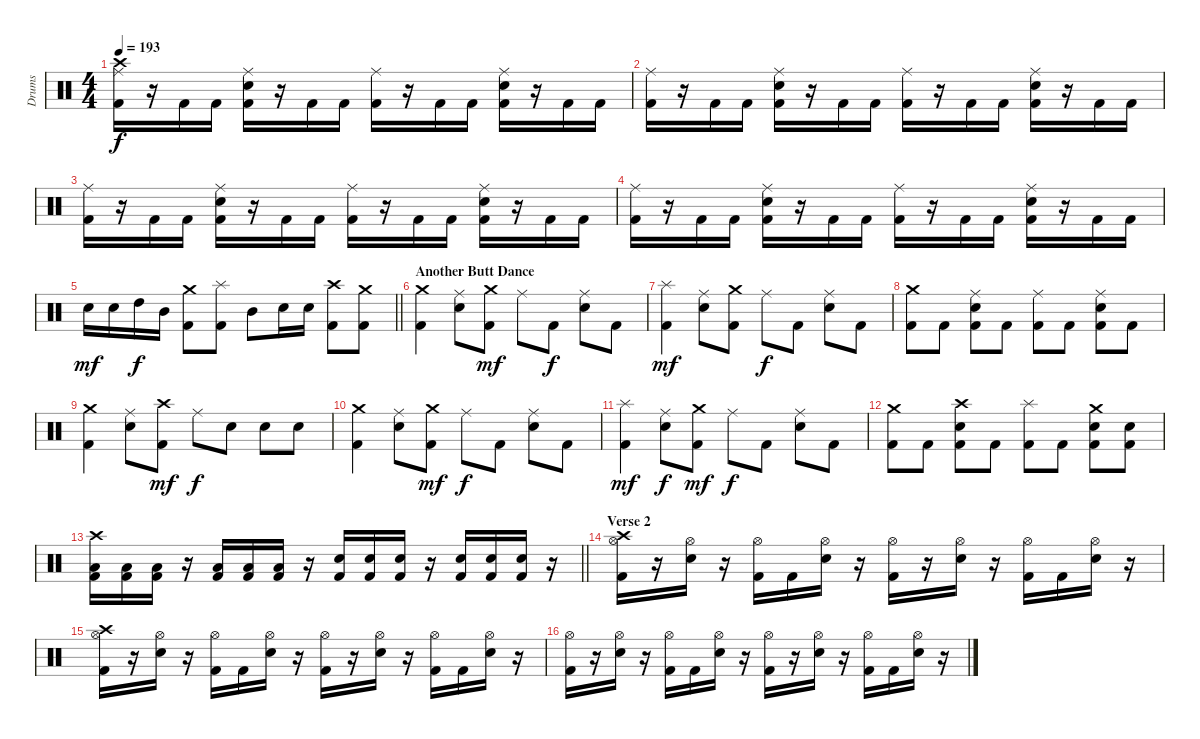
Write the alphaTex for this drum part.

\track ("Drums" "Drums") {instrument percussion}
\staff {score}
\articulation defaults
\ts (4 4)
\tempo 193
\clef neutral
\ks c
("Crash high (hit)" "Ride (middle)" "Kick (hit) 2").16{dy f} r.16 "Kick (hit) 2".16 "Kick (hit) 2".16 ("Ride (middle)" "Snare (hit) 2" "Kick (hit) 2").16 r.16 "Kick (hit) 2".16 "Kick (hit) 2".16 ("Ride (middle)" "Kick (hit) 2").16 r.16 "Kick (hit) 2".16 "Kick (hit) 2".16 ("Ride (middle)" "Snare (hit) 2" "Kick (hit) 2").16 r.16 "Kick (hit) 2".16 "Kick (hit) 2".16 |
("Ride (middle)" "Kick (hit) 2").16 r.16 "Kick (hit) 2".16 "Kick (hit) 2".16 ("Ride (middle)" "Snare (hit) 2" "Kick (hit) 2").16 r.16 "Kick (hit) 2".16 "Kick (hit) 2".16 ("Ride (middle)" "Kick (hit) 2").16 r.16 "Kick (hit) 2".16 "Kick (hit) 2".16 ("Ride (middle)" "Snare (hit) 2" "Kick (hit) 2").16 r.16 "Kick (hit) 2".16 "Kick (hit) 2".16 |
("Ride (middle)" "Kick (hit) 2").16 r.16 "Kick (hit) 2".16 "Kick (hit) 2".16 ("Ride (middle)" "Snare (hit) 2" "Kick (hit) 2").16 r.16 "Kick (hit) 2".16 "Kick (hit) 2".16 ("Ride (middle)" "Kick (hit) 2").16 r.16 "Kick (hit) 2".16 "Kick (hit) 2".16 ("Ride (middle)" "Snare (hit) 2" "Kick (hit) 2").16 r.16 "Kick (hit) 2".16 "Kick (hit) 2".16 |
("Ride (middle)" "Kick (hit) 2").16 r.16 "Kick (hit) 2".16 "Kick (hit) 2".16 ("Ride (middle)" "Snare (hit) 2" "Kick (hit) 2").16 r.16 "Kick (hit) 2".16 "Kick (hit) 2".16 ("Ride (middle)" "Kick (hit) 2").16 r.16 "Kick (hit) 2".16 "Kick (hit) 2".16 ("Ride (middle)" "Snare (hit) 2" "Kick (hit) 2").16 r.16 "Kick (hit) 2".16 "Kick (hit) 2".16 |
\barLineRight lightlight "Snare (hit) 2".16{dy mf} "Snare (hit) 2".16 "High Tom (hit)".16{dy f} "Mid Tom (hit)".16
("Crash medium (hit)" "Kick (hit) 2").8 ("Splash (hit)" "Kick (hit) 2").8 "Mid Tom (hit)".8 "Snare (hit) 2".16 "Snare (hit) 2".16 ("Crash high (hit)" "Kick (hit) 2").8 ("Crash medium (hit)" "Kick (hit) 2").8 |
\section ("" "Another Butt Dance")
("Crash medium (hit)" "Kick (hit) 2").4 ("Ride (middle)" "Snare (hit) 2").8 ("Crash medium (hit)" "Kick (hit) 2").8{dy mf} "Ride (middle)".8 "Kick (hit) 2".8{dy f} ("Ride (middle)" "Snare (hit) 2").8 "Kick (hit) 2".8 |
("Splash (hit)" "Kick (hit) 2").4{dy mf} ("Ride (middle)" "Snare (hit) 2").8 ("Crash medium (hit)" "Kick (hit) 2").8 "Ride (middle)".8{dy f} "Kick (hit) 2".8 ("Ride (middle)" "Snare (hit) 2").8 "Kick (hit) 2".8 |
("Crash medium (hit)" "Kick (hit) 2").8 "Kick (hit) 2".8 ("Ride (middle)" "Snare (hit) 2" "Kick (hit) 2").8 "Kick (hit) 2".8 ("Ride (middle)" "Kick (hit) 2").8 "Kick (hit) 2".8 ("Ride (middle)" "Snare (hit) 2" "Kick (hit) 2").8 "Kick (hit) 2".8 |
("Crash medium (hit)" "Kick (hit) 2").4 ("Ride (middle)" "Snare (hit) 2").8 ("Crash high (hit)" "Kick (hit) 2").8{dy mf} "Ride (middle)".8{dy f} "Snare (hit) 2".8 "Snare (hit) 2".8 "Snare (hit) 2".8 |
("Crash medium (hit)" "Kick (hit) 2").4 ("Ride (middle)" "Snare (hit) 2").8 ("Crash medium (hit)" "Kick (hit) 2").8{dy mf} "Ride (middle)".8{dy f} "Kick (hit) 2".8 ("Ride (middle)" "Snare (hit) 2").8 "Kick (hit) 2".8 |
("Splash (hit)" "Kick (hit) 2").4{dy mf} ("Ride (middle)" "Snare (hit) 2").8{dy f} ("Crash medium (hit)" "Kick (hit) 2").8{dy mf} "Ride (middle)".8{dy f} "Kick (hit) 2".8 ("Ride (middle)" "Snare (hit) 2").8 "Kick (hit) 2".8 |
("Crash medium (hit)" "Kick (hit) 2").8 "Kick (hit) 2".8 ("Crash high (hit)" "Snare (hit) 2" "Kick (hit) 2").8 "Kick (hit) 2".8 ("Splash (hit)" "Kick (hit) 2").8 "Kick (hit) 2".8 ("Crash medium (hit)" "Snare (hit) 2" "Kick (hit) 2").8 ("Snare (hit) 2" "Kick (hit) 2").8 |
\barLineRight lightlight
("Crash high (hit)" "Low Floor Tom (hit)" "Kick (hit) 2").16 ("Low Floor Tom (hit)" "Kick (hit) 2").16 ("Low Floor Tom (hit)" "Kick (hit) 2").16 r.16 ("Low Floor Tom (hit)" "Kick (hit) 2").16 ("Low Floor Tom (hit)" "Kick (hit) 2").16 ("Low Floor Tom (hit)" "Kick (hit) 2").16 r.16 ("Snare (hit) 2" "Kick (hit) 2").16 ("Snare (hit) 2" "Kick (hit) 2").16 ("Snare (hit) 2" "Kick (hit) 2").16 r.16 ("Snare (hit) 2" "Kick (hit) 2").16 ("Snare (hit) 2" "Kick (hit) 2").16 ("Snare (hit) 2" "Kick (hit) 2").16 r.16 |
\section ("" "Verse 2")
("Crash high (hit)" "Hi-Hat (open)" "Kick (hit) 2").16 r.16 ("Hi-Hat (open)" "Snare (hit) 2").16 r.16 ("Hi-Hat (open)" "Kick (hit) 2").16 "Kick (hit) 2".16 ("Hi-Hat (open)" "Snare (hit) 2").16 r.16 ("Hi-Hat (open)" "Kick (hit) 2").16 r.16 ("Hi-Hat (open)" "Snare (hit) 2").16 r.16 ("Hi-Hat (open)" "Kick (hit) 2").16 "Kick (hit) 2".16 ("Hi-Hat (open)" "Snare (hit) 2").16 r.16 |
("Crash high (hit)" "Hi-Hat (open)" "Kick (hit) 2").16 r.16 ("Hi-Hat (open)" "Snare (hit) 2").16 r.16 ("Hi-Hat (open)" "Kick (hit) 2").16 "Kick (hit) 2".16 ("Hi-Hat (open)" "Snare (hit) 2").16 r.16 ("Hi-Hat (open)" "Kick (hit) 2").16 r.16 ("Hi-Hat (open)" "Snare (hit) 2").16 r.16 ("Hi-Hat (open)" "Kick (hit) 2").16 "Kick (hit) 2".16 ("Hi-Hat (open)" "Snare (hit) 2").16 r.16 |
("Hi-Hat (open)" "Kick (hit) 2").16 r.16 ("Hi-Hat (open)" "Snare (hit) 2").16 r.16 ("Hi-Hat (open)" "Kick (hit) 2").16 "Kick (hit) 2".16 ("Hi-Hat (open)" "Snare (hit) 2").16 r.16 ("Hi-Hat (open)" "Kick (hit) 2").16 r.16 ("Hi-Hat (open)" "Snare (hit) 2").16 r.16 ("Hi-Hat (open)" "Kick (hit) 2").16 "Kick (hit) 2".16 ("Hi-Hat (open)" "Snare (hit) 2").16 r.16
